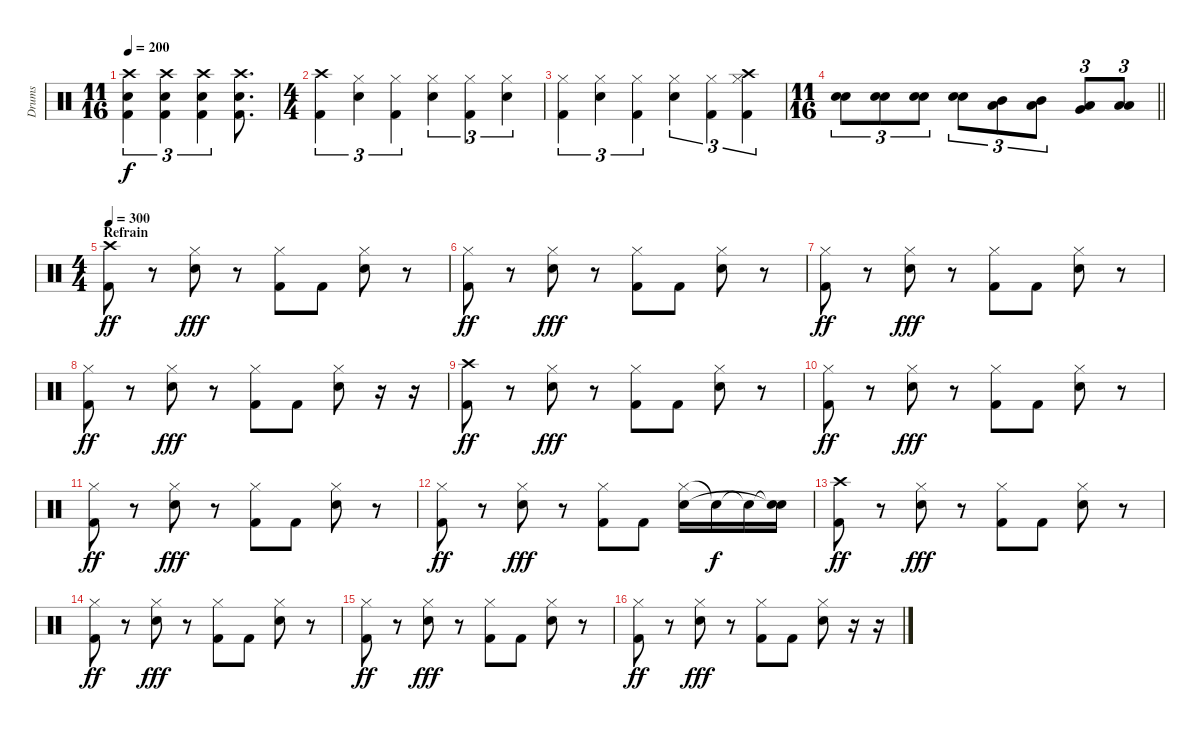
\track ("Drums" "Drums") {instrument percussion}
\staff {score}
\articulation defaults
\ts (11 16)
\tempo 200
\clef neutral
\ks c
("Crash high (hit)" "Kick (hit) 2" "Snare (hit) 2").4{tu (3 2) dy f} ("Crash high (hit)" "Kick (hit) 2" "Snare (hit) 2").4{tu (3 2)} ("Crash high (hit)" "Kick (hit) 2" "Snare (hit) 2").4{tu (3 2)} ("Crash high (hit)" "Kick (hit) 2" "Snare (hit) 2").8{d} |
\ts (4 4)
("Crash high (hit)" "Kick (hit) 2").4{tu (3 2)} ("Hi-Hat (closed)" "Snare (hit) 2").4{tu (3 2)} ("Hi-Hat (closed)" "Kick (hit) 2").4{tu (3 2)} ("Hi-Hat (closed)" "Snare (hit) 2").4{tu (3 2)} ("Hi-Hat (closed)" "Kick (hit) 2").4{tu (3 2)} ("Hi-Hat (closed)" "Snare (hit) 2").4{tu (3 2)} |
("Kick (hit) 2" "Hi-Hat (closed)").4{tu (3 2)} ("Snare (hit) 2" "Hi-Hat (closed)").4{tu (3 2)} ("Kick (hit) 2" "Hi-Hat (closed)").4{tu (3 2)} ("Snare (hit) 2" "Hi-Hat (closed)").4{tu (3 2)} ("Kick (hit) 2" "Hi-Hat (closed)").4{tu (3 2)} ("Kick (hit) 2" "Hi-Hat (closed)" "Crash high (hit)").4{tu (3 2)} |
\ts (11 16)
\barLineRight lightlight
("Electric Snare (hit)" "Snare (hit) 2").8{tu (3 2)} ("Electric Snare (hit)" "Snare (hit) 2").8{tu (3 2)} ("Electric Snare (hit)" "Snare (hit) 2").8{tu (3 2)} ("Electric Snare (hit)" "Snare (hit) 2").8{tu (3 2)} ("Low Tom (hit)" "Mid Tom (hit)").8{tu (3 2)} ("Low Tom (hit)" "Mid Tom (hit)").8{tu (3 2)} ("Very Low Tom (hit)" "Low Tom (hit)").8{tu (3 2)} ("Low Floor Tom (hit)" "Low Tom (hit)").8{tu (3 2)} |
\ts (4 4)
\section ("" "Refrain")
\tempo 300
("Crash high (hit)" "Kick (hit) 2").8{dy ff} r.8 ("Hi-Hat (closed)" "Snare (hit) 2").8{dy fff} r.8 ("Hi-Hat (closed)" "Kick (hit) 2").8 "Kick (hit) 2".8 ("Hi-Hat (closed)" "Snare (hit) 2").8 r.8 |
("Hi-Hat (closed)" "Kick (hit) 2").8{dy ff} r.8 ("Hi-Hat (closed)" "Snare (hit) 2").8{dy fff} r.8 ("Hi-Hat (closed)" "Kick (hit) 2").8 "Kick (hit) 2".8 ("Hi-Hat (closed)" "Snare (hit) 2").8 r.8 |
("Hi-Hat (closed)" "Kick (hit) 2").8{dy ff} r.8 ("Hi-Hat (closed)" "Snare (hit) 2").8{dy fff} r.8 ("Hi-Hat (closed)" "Kick (hit) 2").8 "Kick (hit) 2".8 ("Hi-Hat (closed)" "Snare (hit) 2").8 r.8 |
("Hi-Hat (closed)" "Kick (hit) 2").8{dy ff} r.8 ("Hi-Hat (closed)" "Snare (hit) 2").8{dy fff} r.8 ("Hi-Hat (closed)" "Kick (hit) 2").8 "Kick (hit) 2".8 ("Hi-Hat (closed)" "Snare (hit) 2").8 r.16 r.16 |
("Crash high (hit)" "Kick (hit) 2").8{dy ff} r.8 ("Hi-Hat (closed)" "Snare (hit) 2").8{dy fff} r.8 ("Hi-Hat (closed)" "Kick (hit) 2").8 "Kick (hit) 2".8 ("Hi-Hat (closed)" "Snare (hit) 2").8 r.8 |
("Hi-Hat (closed)" "Kick (hit) 2").8{dy ff} r.8 ("Hi-Hat (closed)" "Snare (hit) 2").8{dy fff} r.8 ("Hi-Hat (closed)" "Kick (hit) 2").8 "Kick (hit) 2".8 ("Hi-Hat (closed)" "Snare (hit) 2").8 r.8 |
("Hi-Hat (closed)" "Kick (hit) 2").8{dy ff} r.8 ("Hi-Hat (closed)" "Snare (hit) 2").8{dy fff} r.8 ("Hi-Hat (closed)" "Kick (hit) 2").8 "Kick (hit) 2".8 ("Hi-Hat (closed)" "Snare (hit) 2").8 r.8 |
("Hi-Hat (closed)" "Kick (hit) 2").8{dy ff} r.8 ("Hi-Hat (closed)" "Snare (hit) 2").8{dy fff} r.8 ("Hi-Hat (closed)" "Kick (hit) 2").8 "Kick (hit) 2".8 ("Hi-Hat (closed)" "Snare (hit) 2").16 "Snare (hit)"{t}.16{dy f} "Snare (hit)"{t}.16 ("Snare (hit)"{t} "Snare (hit) 2"{t}).16 |
("Crash high (hit)" "Kick (hit) 2").8{dy ff} r.8 ("Hi-Hat (closed)" "Snare (hit) 2").8{dy fff} r.8 ("Hi-Hat (closed)" "Kick (hit) 2").8 "Kick (hit) 2".8 ("Hi-Hat (closed)" "Snare (hit) 2").8 r.8 |
("Hi-Hat (closed)" "Kick (hit) 2").8{dy ff} r.8 ("Hi-Hat (closed)" "Snare (hit) 2").8{dy fff} r.8 ("Hi-Hat (closed)" "Kick (hit) 2").8 "Kick (hit) 2".8 ("Hi-Hat (closed)" "Snare (hit) 2").8 r.8 |
("Hi-Hat (closed)" "Kick (hit) 2").8{dy ff} r.8 ("Hi-Hat (closed)" "Snare (hit) 2").8{dy fff} r.8 ("Hi-Hat (closed)" "Kick (hit) 2").8 "Kick (hit) 2".8 ("Hi-Hat (closed)" "Snare (hit) 2").8 r.8 |
("Hi-Hat (closed)" "Kick (hit) 2").8{dy ff} r.8 ("Hi-Hat (closed)" "Snare (hit) 2").8{dy fff} r.8 ("Hi-Hat (closed)" "Kick (hit) 2").8 "Kick (hit) 2".8 ("Hi-Hat (closed)" "Snare (hit) 2").8 r.16 r.16
